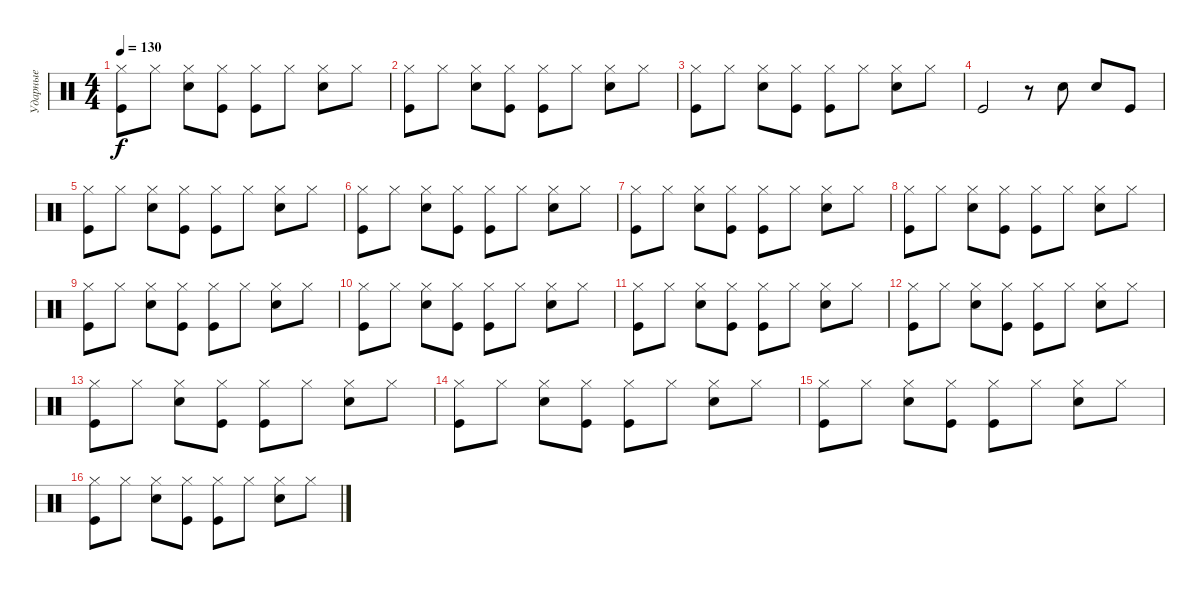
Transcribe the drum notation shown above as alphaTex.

\track ("Ударные" "Ударные") {instrument percussion}
\staff {score}
\articulation defaults
\ts (4 4)
\tempo 130
\clef neutral
\ks c
("Hi-Hat (closed)" "Kick (hit)").8{dy f} "Hi-Hat (closed)".8 ("Hi-Hat (closed)" "Snare (hit) 2").8 ("Hi-Hat (closed)" "Kick (hit)").8 ("Hi-Hat (closed)" "Kick (hit)").8 "Hi-Hat (closed)".8 ("Hi-Hat (closed)" "Snare (hit) 2").8 "Hi-Hat (closed)".8 |
("Hi-Hat (closed)" "Kick (hit)").8 "Hi-Hat (closed)".8 ("Hi-Hat (closed)" "Snare (hit) 2").8 ("Hi-Hat (closed)" "Kick (hit)").8 ("Hi-Hat (closed)" "Kick (hit)").8 "Hi-Hat (closed)".8 ("Hi-Hat (closed)" "Snare (hit) 2").8 "Hi-Hat (closed)".8 |
("Hi-Hat (closed)" "Kick (hit)").8 "Hi-Hat (closed)".8 ("Hi-Hat (closed)" "Snare (hit) 2").8 ("Hi-Hat (closed)" "Kick (hit)").8 ("Hi-Hat (closed)" "Kick (hit)").8 "Hi-Hat (closed)".8 ("Hi-Hat (closed)" "Snare (hit) 2").8 "Hi-Hat (closed)".8 |
"Kick (hit)".2 r.8 "Snare (hit) 2".8 "Snare (hit) 2".8 "Kick (hit)".8 |
("Hi-Hat (closed)" "Kick (hit)").8 "Hi-Hat (closed)".8 ("Hi-Hat (closed)" "Snare (hit) 2").8 ("Hi-Hat (closed)" "Kick (hit)").8 ("Hi-Hat (closed)" "Kick (hit)").8 "Hi-Hat (closed)".8 ("Hi-Hat (closed)" "Snare (hit) 2").8 "Hi-Hat (closed)".8 |
("Hi-Hat (closed)" "Kick (hit)").8 "Hi-Hat (closed)".8 ("Hi-Hat (closed)" "Snare (hit) 2").8 ("Hi-Hat (closed)" "Kick (hit)").8 ("Hi-Hat (closed)" "Kick (hit)").8 "Hi-Hat (closed)".8 ("Hi-Hat (closed)" "Snare (hit) 2").8 "Hi-Hat (closed)".8 |
("Hi-Hat (closed)" "Kick (hit)").8 "Hi-Hat (closed)".8 ("Hi-Hat (closed)" "Snare (hit) 2").8 ("Hi-Hat (closed)" "Kick (hit)").8 ("Hi-Hat (closed)" "Kick (hit)").8 "Hi-Hat (closed)".8 ("Hi-Hat (closed)" "Snare (hit) 2").8 "Hi-Hat (closed)".8 |
("Hi-Hat (closed)" "Kick (hit)").8 "Hi-Hat (closed)".8 ("Hi-Hat (closed)" "Snare (hit) 2").8 ("Hi-Hat (closed)" "Kick (hit)").8 ("Hi-Hat (closed)" "Kick (hit)").8 "Hi-Hat (closed)".8 ("Hi-Hat (closed)" "Snare (hit) 2").8 "Hi-Hat (closed)".8 |
("Hi-Hat (closed)" "Kick (hit)").8 "Hi-Hat (closed)".8 ("Hi-Hat (closed)" "Snare (hit) 2").8 ("Hi-Hat (closed)" "Kick (hit)").8 ("Hi-Hat (closed)" "Kick (hit)").8 "Hi-Hat (closed)".8 ("Hi-Hat (closed)" "Snare (hit) 2").8 "Hi-Hat (closed)".8 |
("Hi-Hat (closed)" "Kick (hit)").8 "Hi-Hat (closed)".8 ("Hi-Hat (closed)" "Snare (hit) 2").8 ("Hi-Hat (closed)" "Kick (hit)").8 ("Hi-Hat (closed)" "Kick (hit)").8 "Hi-Hat (closed)".8 ("Hi-Hat (closed)" "Snare (hit) 2").8 "Hi-Hat (closed)".8 |
("Hi-Hat (closed)" "Kick (hit)").8 "Hi-Hat (closed)".8 ("Hi-Hat (closed)" "Snare (hit) 2").8 ("Hi-Hat (closed)" "Kick (hit)").8 ("Hi-Hat (closed)" "Kick (hit)").8 "Hi-Hat (closed)".8 ("Hi-Hat (closed)" "Snare (hit) 2").8 "Hi-Hat (closed)".8 |
("Hi-Hat (closed)" "Kick (hit)").8 "Hi-Hat (closed)".8 ("Hi-Hat (closed)" "Snare (hit) 2").8 ("Hi-Hat (closed)" "Kick (hit)").8 ("Hi-Hat (closed)" "Kick (hit)").8 "Hi-Hat (closed)".8 ("Hi-Hat (closed)" "Snare (hit) 2").8 "Hi-Hat (closed)".8 |
("Hi-Hat (closed)" "Kick (hit)").8 "Hi-Hat (closed)".8 ("Hi-Hat (closed)" "Snare (hit) 2").8 ("Hi-Hat (closed)" "Kick (hit)").8 ("Hi-Hat (closed)" "Kick (hit)").8 "Hi-Hat (closed)".8 ("Hi-Hat (closed)" "Snare (hit) 2").8 "Hi-Hat (closed)".8 |
("Hi-Hat (closed)" "Kick (hit)").8 "Hi-Hat (closed)".8 ("Hi-Hat (closed)" "Snare (hit) 2").8 ("Hi-Hat (closed)" "Kick (hit)").8 ("Hi-Hat (closed)" "Kick (hit)").8 "Hi-Hat (closed)".8 ("Hi-Hat (closed)" "Snare (hit) 2").8 "Hi-Hat (closed)".8 |
("Hi-Hat (closed)" "Kick (hit)").8 "Hi-Hat (closed)".8 ("Hi-Hat (closed)" "Snare (hit) 2").8 ("Hi-Hat (closed)" "Kick (hit)").8 ("Hi-Hat (closed)" "Kick (hit)").8 "Hi-Hat (closed)".8 ("Hi-Hat (closed)" "Snare (hit) 2").8 "Hi-Hat (closed)".8 |
("Hi-Hat (closed)" "Kick (hit)").8 "Hi-Hat (closed)".8 ("Hi-Hat (closed)" "Snare (hit) 2").8 ("Hi-Hat (closed)" "Kick (hit)").8 ("Hi-Hat (closed)" "Kick (hit)").8 "Hi-Hat (closed)".8 ("Hi-Hat (closed)" "Snare (hit) 2").8 "Hi-Hat (closed)".8
